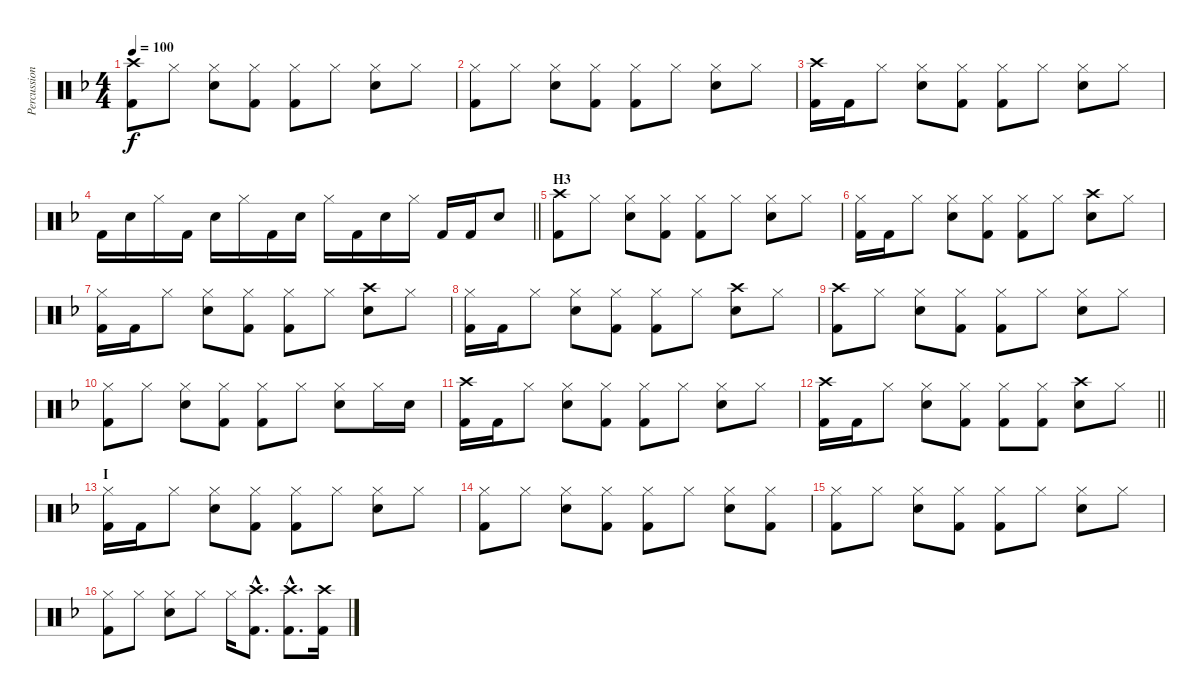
\track ("Percussion" "Percussion") {instrument percussion}
\staff {score}
\articulation defaults
\ts (4 4)
\tempo 100
\clef neutral
\ks f
("Crash high (hit)" "Kick (hit) 2").8{dy f} "Hi-Hat (closed)".8 ("Hi-Hat (closed)" "Snare (hit) 2").8 ("Hi-Hat (closed)" "Kick (hit) 2").8 ("Hi-Hat (closed)" "Kick (hit) 2").8 "Hi-Hat (closed)".8 ("Hi-Hat (closed)" "Snare (hit) 2").8 "Hi-Hat (closed)".8 |
("Hi-Hat (closed)" "Kick (hit) 2").8 "Hi-Hat (closed)".8 ("Hi-Hat (closed)" "Snare (hit) 2").8 ("Hi-Hat (closed)" "Kick (hit) 2").8 ("Hi-Hat (closed)" "Kick (hit) 2").8 "Hi-Hat (closed)".8 ("Hi-Hat (closed)" "Snare (hit) 2").8 "Hi-Hat (closed)".8 |
("Crash high (hit)" "Kick (hit) 2").16 "Kick (hit) 2".16 "Hi-Hat (closed)".8 ("Hi-Hat (closed)" "Snare (hit) 2").8 ("Hi-Hat (closed)" "Kick (hit) 2").8 ("Hi-Hat (closed)" "Kick (hit) 2").8 "Hi-Hat (closed)".8 ("Hi-Hat (closed)" "Snare (hit) 2").8 "Hi-Hat (closed)".8 |
\barLineRight lightlight "Kick (hit) 2".16 "Snare (hit) 2".16 "Hi-Hat (closed)".16 "Kick (hit) 2".16 "Snare (hit) 2".16 "Hi-Hat (closed)".16 "Kick (hit) 2".16 "Snare (hit) 2".16 "Hi-Hat (closed)".16 "Kick (hit) 2".16 "Snare (hit) 2".16 "Hi-Hat (closed)".16 "Kick (hit) 2".16 "Kick (hit) 2".16 "Snare (hit) 2".8
|
\section ("" "H3")
("Crash high (hit)" "Kick (hit) 2").8 "Hi-Hat (closed)".8 ("Hi-Hat (closed)" "Snare (hit) 2").8 ("Hi-Hat (closed)" "Kick (hit) 2").8 ("Hi-Hat (closed)" "Kick (hit) 2").8 "Hi-Hat (closed)".8 ("Hi-Hat (closed)" "Snare (hit) 2").8 "Hi-Hat (closed)".8 |
("Hi-Hat (closed)" "Kick (hit) 2").16 "Kick (hit) 2".16 "Hi-Hat (closed)".8 ("Hi-Hat (closed)" "Snare (hit) 2").8 ("Hi-Hat (closed)" "Kick (hit) 2").8 ("Hi-Hat (closed)" "Kick (hit) 2").8 "Hi-Hat (closed)".8 ("Crash high (hit)" "Snare (hit) 2").8 "Hi-Hat (closed)".8 |
("Hi-Hat (closed)" "Kick (hit) 2").16 "Kick (hit) 2".16 "Hi-Hat (closed)".8 ("Hi-Hat (closed)" "Snare (hit) 2").8 ("Hi-Hat (closed)" "Kick (hit) 2").8 ("Hi-Hat (closed)" "Kick (hit) 2").8 "Hi-Hat (closed)".8 ("Crash high (hit)" "Snare (hit) 2").8 "Hi-Hat (closed)".8 |
("Hi-Hat (closed)" "Kick (hit) 2").16 "Kick (hit) 2".16 "Hi-Hat (closed)".8 ("Hi-Hat (closed)" "Snare (hit) 2").8 ("Hi-Hat (closed)" "Kick (hit) 2").8 ("Hi-Hat (closed)" "Kick (hit) 2").8 "Hi-Hat (closed)".8 ("Crash high (hit)" "Snare (hit) 2").8 "Hi-Hat (closed)".8 |
("Crash high (hit)" "Kick (hit) 2").8 "Hi-Hat (closed)".8 ("Hi-Hat (closed)" "Snare (hit) 2").8 ("Hi-Hat (closed)" "Kick (hit) 2").8 ("Hi-Hat (closed)" "Kick (hit) 2").8 "Hi-Hat (closed)".8 ("Hi-Hat (closed)" "Snare (hit) 2").8 "Hi-Hat (closed)".8 |
("Hi-Hat (closed)" "Kick (hit) 2").8 "Hi-Hat (closed)".8 ("Hi-Hat (closed)" "Snare (hit) 2").8 ("Hi-Hat (closed)" "Kick (hit) 2").8 ("Hi-Hat (closed)" "Kick (hit) 2").8 "Hi-Hat (closed)".8 ("Hi-Hat (closed)" "Snare (hit) 2").8 "Hi-Hat (closed)".16 "Snare (hit) 2".16 |
("Crash high (hit)" "Kick (hit) 2").16 "Kick (hit) 2".16 "Hi-Hat (closed)".8 ("Hi-Hat (closed)" "Snare (hit) 2").8 ("Hi-Hat (closed)" "Kick (hit) 2").8 ("Hi-Hat (closed)" "Kick (hit) 2").8 "Hi-Hat (closed)".8 ("Hi-Hat (closed)" "Snare (hit) 2").8 "Hi-Hat (closed)".8 |
\barLineRight lightlight
("Crash high (hit)" "Kick (hit) 2").16 "Kick (hit) 2".16 "Hi-Hat (closed)".8 ("Hi-Hat (closed)" "Snare (hit) 2").8 ("Hi-Hat (closed)" "Kick (hit) 2").8 ("Hi-Hat (closed)" "Kick (hit) 2").8 ("Hi-Hat (closed)" "Kick (hit) 2").8 ("Crash high (hit)" "Snare (hit) 2").8 "Hi-Hat (closed)".8 |
\section ("" "I")
("Hi-Hat (closed)" "Kick (hit) 2").16 "Kick (hit) 2".16 "Hi-Hat (closed)".8 ("Hi-Hat (closed)" "Snare (hit) 2").8 ("Hi-Hat (closed)" "Kick (hit) 2").8 ("Hi-Hat (closed)" "Kick (hit) 2").8 "Hi-Hat (closed)".8 ("Hi-Hat (closed)" "Snare (hit) 2").8 "Hi-Hat (closed)".8 |
("Hi-Hat (closed)" "Kick (hit) 2").8 "Hi-Hat (closed)".8 ("Hi-Hat (closed)" "Snare (hit) 2").8 ("Hi-Hat (closed)" "Kick (hit) 2").8 ("Hi-Hat (closed)" "Kick (hit) 2").8 "Hi-Hat (closed)".8 ("Hi-Hat (closed)" "Snare (hit) 2").8 ("Hi-Hat (closed)" "Kick (hit) 2").8 |
("Hi-Hat (closed)" "Kick (hit) 2").8 "Hi-Hat (closed)".8 ("Hi-Hat (closed)" "Snare (hit) 2").8 ("Hi-Hat (closed)" "Kick (hit) 2").8 ("Hi-Hat (closed)" "Kick (hit) 2").8 "Hi-Hat (closed)".8 ("Hi-Hat (closed)" "Snare (hit) 2").8 "Hi-Hat (closed)".8 |
("Hi-Hat (closed)" "Kick (hit) 2").8 "Hi-Hat (closed)".8 ("Hi-Hat (closed)" "Snare (hit) 2").8 "Hi-Hat (closed)".8 "Hi-Hat (closed)".16 ("Crash high (hit)"{hac} "Kick (hit) 2"{hac}).8{d} ("Crash high (hit)"{hac} "Kick (hit) 2"{hac}).8{d} ("Crash high (hit)" "Kick (hit) 2").16
